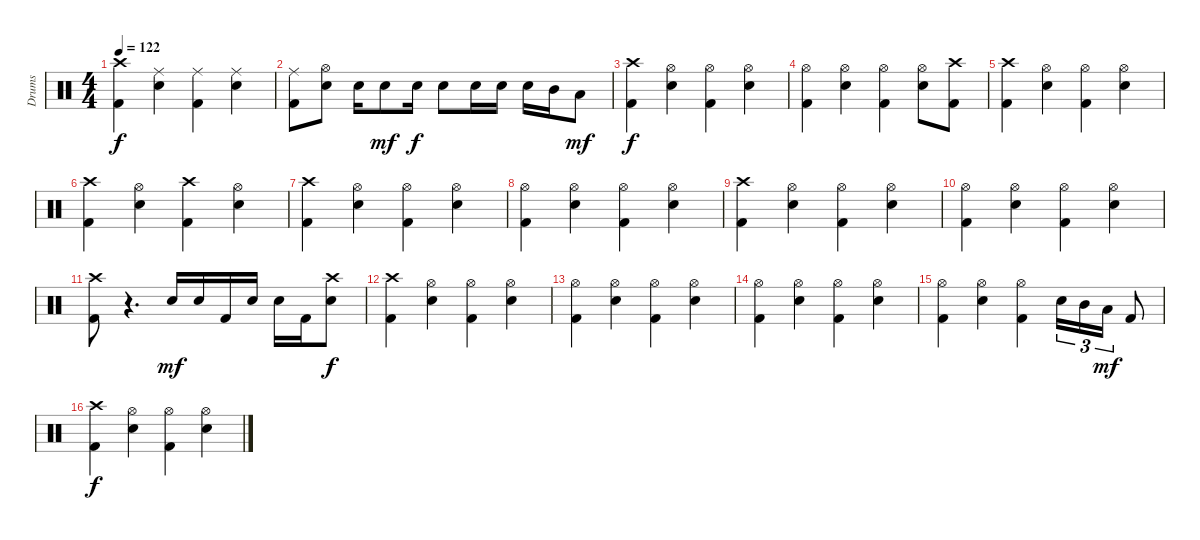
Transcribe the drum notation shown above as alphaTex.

\track ("Drums" "Drums") {instrument percussion}
\staff {score}
\articulation defaults
\ts (4 4)
\tempo 122
\clef neutral
\ks c
("Kick (hit) 2" "Crash high (hit)").4{dy f} ("Electric Snare (hit)" "Ride (middle)").4 ("Kick (hit) 2" "Ride (middle)").4 ("Electric Snare (hit)" "Ride (middle)").4 |
("Ride (middle)" "Kick (hit) 2").8 ("Hi-Hat (open)" "Electric Snare (hit)").8 "Electric Snare (hit)".16 "Electric Snare (hit)".8{dy mf} "Electric Snare (hit)".16{dy f} "Electric Snare (hit)".8 "Electric Snare (hit)".16 "Electric Snare (hit)".16 "Electric Snare (hit)".16 "Mid Tom (hit)".16 "Low Tom (hit)".8{dy mf} |
("Crash high (hit)" "Kick (hit) 2").4{dy f} ("Electric Snare (hit)" "Hi-Hat (open)").4 ("Kick (hit) 2" "Hi-Hat (open)").4 ("Electric Snare (hit)" "Hi-Hat (open)").4 |
("Kick (hit) 2" "Hi-Hat (open)").4 ("Electric Snare (hit)" "Hi-Hat (open)").4 ("Kick (hit) 2" "Hi-Hat (open)").4 ("Electric Snare (hit)" "Hi-Hat (open)").8 ("Crash high (hit)" "Kick (hit) 2").8 |
("Crash high (hit)" "Kick (hit) 2").4 ("Electric Snare (hit)" "Hi-Hat (open)").4 ("Kick (hit) 2" "Hi-Hat (open)").4 ("Electric Snare (hit)" "Hi-Hat (open)").4 |
("Kick (hit) 2" "Crash high (hit)").4 ("Electric Snare (hit)" "Hi-Hat (open)").4 ("Kick (hit) 2" "Crash high (hit)").4 ("Electric Snare (hit)" "Hi-Hat (open)").4 |
("Crash high (hit)" "Kick (hit) 2").4 ("Electric Snare (hit)" "Hi-Hat (open)").4 ("Kick (hit) 2" "Hi-Hat (open)").4 ("Electric Snare (hit)" "Hi-Hat (open)").4 |
("Kick (hit) 2" "Hi-Hat (open)").4 ("Electric Snare (hit)" "Hi-Hat (open)").4 ("Kick (hit) 2" "Hi-Hat (open)").4 ("Electric Snare (hit)" "Hi-Hat (open)").4 |
("Crash high (hit)" "Kick (hit) 2").4 ("Electric Snare (hit)" "Hi-Hat (open)").4 ("Kick (hit) 2" "Hi-Hat (open)").4 ("Electric Snare (hit)" "Hi-Hat (open)").4 |
("Kick (hit) 2" "Hi-Hat (open)").4 ("Electric Snare (hit)" "Hi-Hat (open)").4 ("Kick (hit) 2" "Hi-Hat (open)").4 ("Electric Snare (hit)" "Hi-Hat (open)").4 |
("Kick (hit) 2" "Crash high (hit)").8 r.4{d} "Electric Snare (hit)".16{dy mf} "Electric Snare (hit)".16 "Kick (hit) 2".16 "Electric Snare (hit)".16 "Electric Snare (hit)".16 "Kick (hit) 2".16 ("Crash high (hit)" "Electric Snare (hit)").8{dy f} |
("Kick (hit) 2" "Crash high (hit)").4 ("Electric Snare (hit)" "Hi-Hat (open)").4 ("Kick (hit) 2" "Hi-Hat (open)").4 ("Electric Snare (hit)" "Hi-Hat (open)").4 |
("Kick (hit) 2" "Hi-Hat (open)").4 ("Electric Snare (hit)" "Hi-Hat (open)").4 ("Kick (hit) 2" "Hi-Hat (open)").4 ("Electric Snare (hit)" "Hi-Hat (open)").4 |
("Kick (hit) 2" "Hi-Hat (open)").4 ("Electric Snare (hit)" "Hi-Hat (open)").4 ("Kick (hit) 2" "Hi-Hat (open)").4 ("Electric Snare (hit)" "Hi-Hat (open)").4 |
("Kick (hit) 2" "Hi-Hat (open)").4 ("Electric Snare (hit)" "Hi-Hat (open)").4 ("Kick (hit) 2" "Hi-Hat (open)").4 "Electric Snare (hit)".16{tu (3 2)} "Mid Tom (hit)".16{tu (3 2)} "Low Tom (hit)".16{tu (3 2) dy mf} "Kick (hit) 2".8 |
("Kick (hit) 2" "Crash high (hit)").4{dy f} ("Electric Snare (hit)" "Hi-Hat (open)").4 ("Kick (hit) 2" "Hi-Hat (open)").4 ("Electric Snare (hit)" "Hi-Hat (open)").4
